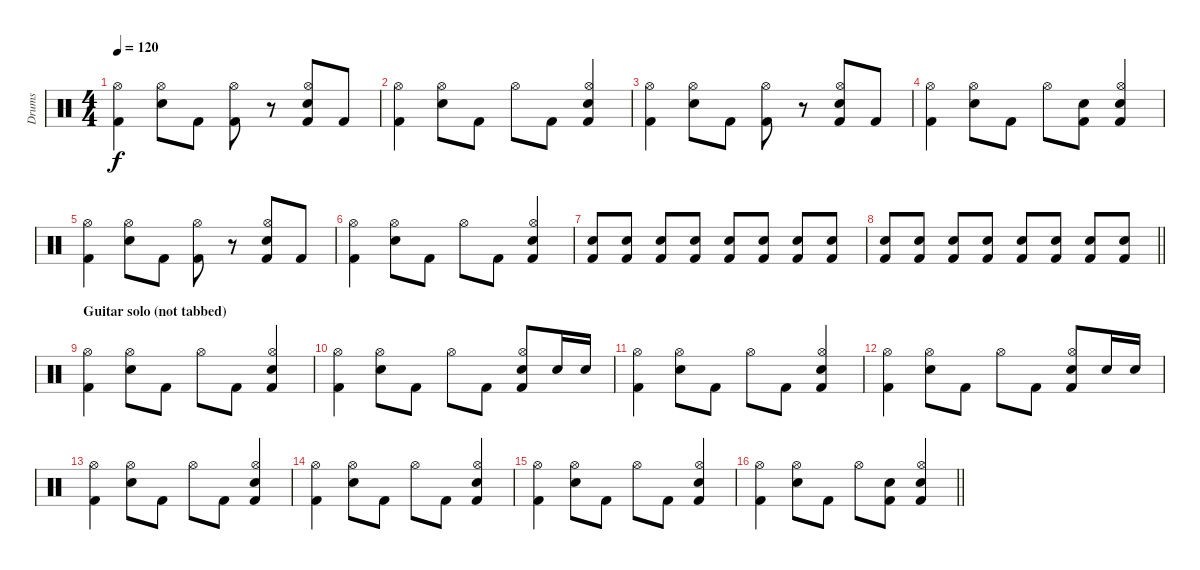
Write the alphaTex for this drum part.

\track ("Drums" "Drums") {instrument percussion}
\staff {score}
\articulation defaults
\ts (4 4)
\tempo 120
\clef neutral
\ks c
("Kick (hit) 2" "Hi-Hat (open)").4{dy f} ("Snare (hit) 2" "Hi-Hat (open)").8 "Kick (hit) 2".8 ("Kick (hit) 2" "Hi-Hat (open)").8 r.8 ("Kick (hit) 2" "Snare (hit) 2" "Hi-Hat (open)").8 "Kick (hit) 2".8 |
("Kick (hit) 2" "Hi-Hat (open)").4 ("Snare (hit) 2" "Hi-Hat (open)").8 "Kick (hit) 2".8 "Hi-Hat (open)".8 "Kick (hit) 2".8 ("Kick (hit) 2" "Snare (hit) 2" "Hi-Hat (open)").4 |
("Kick (hit) 2" "Hi-Hat (open)").4 ("Snare (hit) 2" "Hi-Hat (open)").8 "Kick (hit) 2".8 ("Kick (hit) 2" "Hi-Hat (open)").8 r.8 ("Kick (hit) 2" "Snare (hit) 2" "Hi-Hat (open)").8 "Kick (hit) 2".8 |
("Kick (hit) 2" "Hi-Hat (open)").4 ("Snare (hit) 2" "Hi-Hat (open)").8 "Kick (hit) 2".8 "Hi-Hat (open)".8 ("Kick (hit) 2" "Snare (hit) 2").8 ("Kick (hit) 2" "Snare (hit) 2" "Hi-Hat (open)").4 |
("Kick (hit) 2" "Hi-Hat (open)").4 ("Snare (hit) 2" "Hi-Hat (open)").8 "Kick (hit) 2".8 ("Kick (hit) 2" "Hi-Hat (open)").8 r.8 ("Kick (hit) 2" "Snare (hit) 2" "Hi-Hat (open)").8 "Kick (hit) 2".8 |
("Kick (hit) 2" "Hi-Hat (open)").4 ("Snare (hit) 2" "Hi-Hat (open)").8 "Kick (hit) 2".8 "Hi-Hat (open)".8 "Kick (hit) 2".8 ("Kick (hit) 2" "Snare (hit) 2" "Hi-Hat (open)").4 |
("Kick (hit) 2" "Snare (hit) 2").8 ("Kick (hit) 2" "Snare (hit) 2").8 ("Kick (hit) 2" "Snare (hit) 2").8 ("Kick (hit) 2" "Snare (hit) 2").8 ("Kick (hit) 2" "Snare (hit) 2").8 ("Kick (hit) 2" "Snare (hit) 2").8 ("Kick (hit) 2" "Snare (hit) 2").8 ("Kick (hit) 2" "Snare (hit) 2").8 |
\barLineRight lightlight
("Kick (hit) 2" "Snare (hit) 2").8 ("Kick (hit) 2" "Snare (hit) 2").8 ("Kick (hit) 2" "Snare (hit) 2").8 ("Kick (hit) 2" "Snare (hit) 2").8 ("Kick (hit) 2" "Snare (hit) 2").8 ("Kick (hit) 2" "Snare (hit) 2").8 ("Kick (hit) 2" "Snare (hit) 2").8 ("Kick (hit) 2" "Snare (hit) 2").8 |
\section ("" "Guitar solo (not tabbed)")
("Kick (hit) 2" "Hi-Hat (open)").4 ("Snare (hit) 2" "Hi-Hat (open)").8 "Kick (hit) 2".8 "Hi-Hat (open)".8 "Kick (hit) 2".8 ("Kick (hit) 2" "Snare (hit) 2" "Hi-Hat (open)").4 |
("Kick (hit) 2" "Hi-Hat (open)").4 ("Snare (hit) 2" "Hi-Hat (open)").8 "Kick (hit) 2".8 "Hi-Hat (open)".8 "Kick (hit) 2".8 ("Kick (hit) 2" "Snare (hit) 2" "Hi-Hat (open)").8 "Snare (hit) 2".16 "Snare (hit) 2".16 |
("Kick (hit) 2" "Hi-Hat (open)").4 ("Snare (hit) 2" "Hi-Hat (open)").8 "Kick (hit) 2".8 "Hi-Hat (open)".8 "Kick (hit) 2".8 ("Kick (hit) 2" "Snare (hit) 2" "Hi-Hat (open)").4 |
("Kick (hit) 2" "Hi-Hat (open)").4 ("Snare (hit) 2" "Hi-Hat (open)").8 "Kick (hit) 2".8 "Hi-Hat (open)".8 "Kick (hit) 2".8 ("Kick (hit) 2" "Snare (hit) 2" "Hi-Hat (open)").8 "Snare (hit) 2".16 "Snare (hit) 2".16 |
("Kick (hit) 2" "Hi-Hat (open)").4 ("Snare (hit) 2" "Hi-Hat (open)").8 "Kick (hit) 2".8 "Hi-Hat (open)".8 "Kick (hit) 2".8 ("Kick (hit) 2" "Snare (hit) 2" "Hi-Hat (open)").4 |
("Kick (hit) 2" "Hi-Hat (open)").4 ("Snare (hit) 2" "Hi-Hat (open)").8 "Kick (hit) 2".8 "Hi-Hat (open)".8 "Kick (hit) 2".8 ("Kick (hit) 2" "Snare (hit) 2" "Hi-Hat (open)").4 |
("Kick (hit) 2" "Hi-Hat (open)").4 ("Snare (hit) 2" "Hi-Hat (open)").8 "Kick (hit) 2".8 "Hi-Hat (open)".8 "Kick (hit) 2".8 ("Kick (hit) 2" "Snare (hit) 2" "Hi-Hat (open)").4 |
\barLineRight lightlight
("Kick (hit) 2" "Hi-Hat (open)").4 ("Snare (hit) 2" "Hi-Hat (open)").8 "Kick (hit) 2".8 "Hi-Hat (open)".8 ("Kick (hit) 2" "Snare (hit) 2").8 ("Kick (hit) 2" "Snare (hit) 2" "Hi-Hat (open)").4
